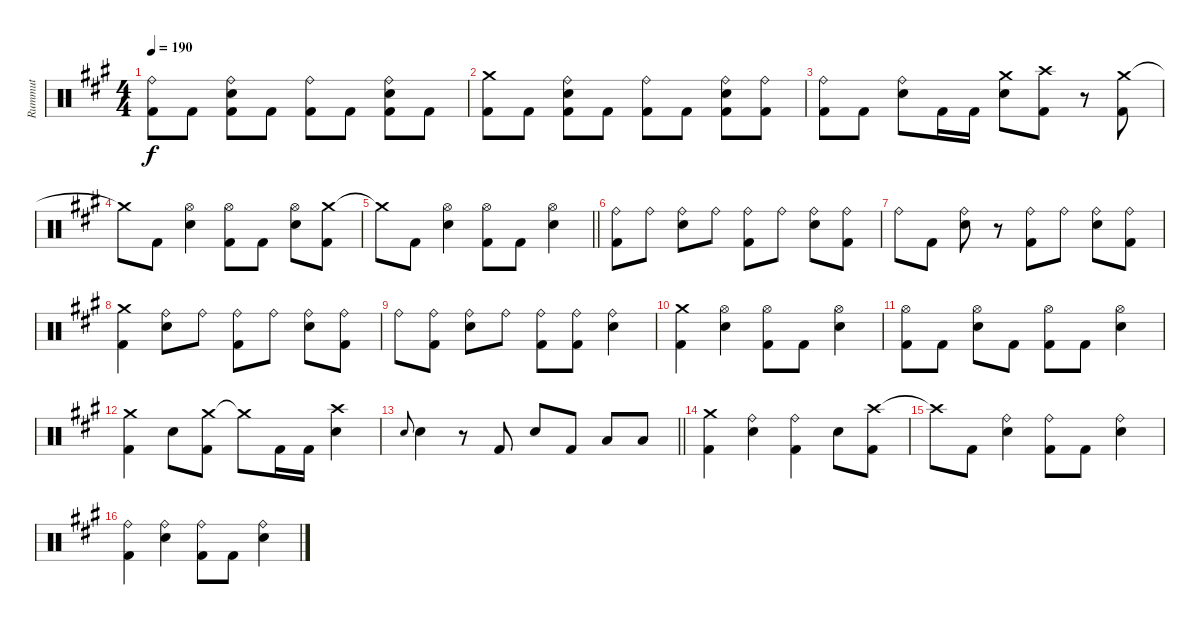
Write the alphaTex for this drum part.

\track ("Rummut" "Rummut") {instrument percussion}
\staff {score}
\articulation defaults
\ts (4 4)
\tempo 190
\clef neutral
\ks a
("Ride (bell)" "Kick (hit) 2").8{dy f} "Kick (hit) 2".8 ("Ride (bell)" "Snare (hit) 2" "Kick (hit) 2").8 "Kick (hit) 2".8 ("Ride (bell)" "Kick (hit) 2").8 "Kick (hit) 2".8 ("Ride (bell)" "Snare (hit) 2" "Kick (hit) 2").8 "Kick (hit) 2".8 |
("Crash medium (hit)" "Kick (hit) 2").8 "Kick (hit) 2".8 ("Ride (bell)" "Snare (hit) 2" "Kick (hit) 2").8 "Kick (hit) 2".8 ("Ride (bell)" "Kick (hit) 2").8 "Kick (hit) 2".8 ("Ride (bell)" "Snare (hit) 2" "Kick (hit) 2").8 ("Ride (bell)" "Kick (hit) 2").8 |
("Ride (bell)" "Kick (hit) 2").8 "Kick (hit) 2".8 ("Ride (bell)" "Snare (hit) 2").8 "Kick (hit) 2".16 "Kick (hit) 2".16 ("Crash medium (hit)" "Snare (hit) 2").8 ("Crash high (hit)" "Kick (hit) 2").8 r.8 ("Crash medium (hit)" "Kick (hit) 2").8 |
"Crash medium (hit)"{t}.8 "Kick (hit) 2".8 ("Hi-Hat (open)" "Snare (hit) 2").4 ("Hi-Hat (open)" "Kick (hit) 2").8 "Kick (hit) 2".8 ("Hi-Hat (open)" "Snare (hit) 2").8 ("Crash medium (hit)" "Kick (hit) 2").8 |
\barLineRight lightlight "Crash medium (hit)"{t}.8 "Kick (hit) 2".8
("Hi-Hat (open)" "Snare (hit) 2").4 ("Hi-Hat (open)" "Kick (hit) 2").8 "Kick (hit) 2".8 ("Hi-Hat (open)" "Snare (hit) 2").4 |
("Ride (bell)" "Kick (hit) 2").8 "Ride (bell)".8 ("Ride (bell)" "Snare (hit) 2").8 "Ride (bell)".8 ("Ride (bell)" "Kick (hit) 2").8 "Ride (bell)".8 ("Ride (bell)" "Snare (hit) 2").8 ("Ride (bell)" "Kick (hit) 2").8 |
"Ride (bell)".8 "Kick (hit) 2".8 ("Ride (bell)" "Snare (hit) 2").8 r.8 ("Ride (bell)" "Kick (hit) 2").8 "Ride (bell)".8 ("Ride (bell)" "Snare (hit) 2").8 ("Ride (bell)" "Kick (hit) 2").8 |
("Crash medium (hit)" "Kick (hit) 2").4 ("Ride (bell)" "Snare (hit) 2").8 "Ride (bell)".8 ("Ride (bell)" "Kick (hit) 2").8 "Ride (bell)".8 ("Ride (bell)" "Snare (hit) 2").8 ("Ride (bell)" "Kick (hit) 2").8 |
"Ride (bell)".8 ("Ride (bell)" "Kick (hit) 2").8 ("Ride (bell)" "Snare (hit) 2").8 "Ride (bell)".8 ("Ride (bell)" "Kick (hit) 2").8 ("Ride (bell)" "Kick (hit) 2").8 ("Ride (bell)" "Snare (hit) 2").4 |
("Crash medium (hit)" "Kick (hit) 2").4 ("Hi-Hat (open)" "Snare (hit) 2").4 ("Hi-Hat (open)" "Kick (hit) 2").8 "Kick (hit) 2".8 ("Hi-Hat (open)" "Snare (hit) 2").4 |
("Hi-Hat (open)" "Kick (hit) 2").8 "Kick (hit) 2".8 ("Hi-Hat (open)" "Snare (hit) 2").8 "Kick (hit) 2".8 ("Hi-Hat (open)" "Kick (hit) 2").8 "Kick (hit) 2".8 ("Hi-Hat (open)" "Snare (hit) 2").4 |
("Crash medium (hit)" "Kick (hit) 2").4 "Snare (hit) 2".8 ("Crash medium (hit)" "Kick (hit) 2").8 "Crash medium (hit)"{t}.8 "Kick (hit) 2".16 "Kick (hit) 2".16 ("Crash high (hit)" "Snare (hit) 2").4 |
\barLineRight lightlight "Snare (hit) 2".8{gr onbeat} "Snare (hit) 2".4
r.8 "Kick (hit) 2".8 "Snare (hit) 2".8 "Kick (hit) 2".8 "Low Tom (hit)".8 "Low Tom (hit)".8 |
("Crash medium (hit)" "Kick (hit) 2").4 ("Ride (bell)" "Snare (hit) 2").4 ("Ride (bell)" "Kick (hit) 2").4 "Snare (hit) 2".8 ("Crash high (hit)" "Kick (hit) 2").8 |
"Crash high (hit)"{t}.8 "Kick (hit) 2".8 ("Ride (bell)" "Snare (hit) 2").4 ("Ride (bell)" "Kick (hit) 2").8 "Kick (hit) 2".8 ("Ride (bell)" "Snare (hit) 2").4 |
("Ride (bell)" "Kick (hit) 2").4 ("Ride (bell)" "Snare (hit) 2").4 ("Ride (bell)" "Kick (hit) 2").8 "Kick (hit) 2".8 ("Ride (bell)" "Snare (hit) 2").4
